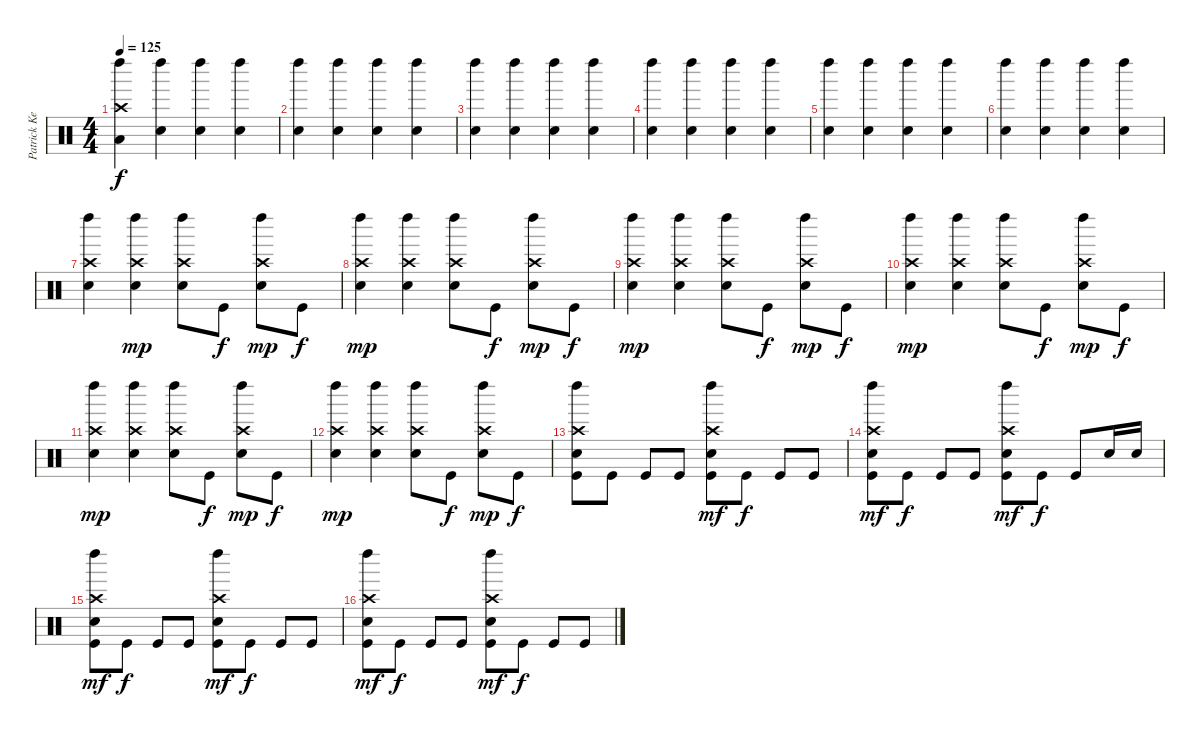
\track ("Patrick Keeler" "Patrick Ke") {instrument percussion}
\staff {score}
\articulation defaults
\ts (4 4)
\tempo 125
\clef neutral
\ks c
("Crash high (hit)" "Left Maraca (hit)" "Low Floor Tom (hit)").4{dy f} ("Left Maraca (hit)" "Electric Snare (hit)").4 ("Left Maraca (hit)" "Electric Snare (hit)").4 ("Left Maraca (hit)" "Electric Snare (hit)").4 |
("Left Maraca (hit)" "Electric Snare (hit)").4 ("Left Maraca (hit)" "Electric Snare (hit)").4 ("Left Maraca (hit)" "Electric Snare (hit)").4 ("Left Maraca (hit)" "Electric Snare (hit)").4 |
("Left Maraca (hit)" "Electric Snare (hit)").4 ("Left Maraca (hit)" "Electric Snare (hit)").4 ("Left Maraca (hit)" "Electric Snare (hit)").4 ("Left Maraca (hit)" "Electric Snare (hit)").4 |
("Left Maraca (hit)" "Electric Snare (hit)").4 ("Left Maraca (hit)" "Electric Snare (hit)").4 ("Left Maraca (hit)" "Electric Snare (hit)").4 ("Left Maraca (hit)" "Electric Snare (hit)").4 |
("Left Maraca (hit)" "Electric Snare (hit)").4 ("Left Maraca (hit)" "Electric Snare (hit)").4 ("Left Maraca (hit)" "Electric Snare (hit)").4 ("Left Maraca (hit)" "Electric Snare (hit)").4 |
("Left Maraca (hit)" "Electric Snare (hit)").4 ("Left Maraca (hit)" "Electric Snare (hit)").4 ("Left Maraca (hit)" "Electric Snare (hit)").4 ("Left Maraca (hit)" "Electric Snare (hit)").4 |
("Crash high (hit)" "Left Maraca (hit)" "Electric Snare (hit)").4 ("Crash high (hit)" "Left Maraca (hit)" "Electric Snare (hit)").4{dy mp} ("Crash high (hit)" "Left Maraca (hit)" "Electric Snare (hit)").8 "Kick (hit)".8{dy f} ("Crash high (hit)" "Left Maraca (hit)" "Electric Snare (hit)").8{dy mp} "Kick (hit)".8{dy f} |
("Crash high (hit)" "Left Maraca (hit)" "Electric Snare (hit)").4{dy mp} ("Crash high (hit)" "Left Maraca (hit)" "Electric Snare (hit)").4 ("Crash high (hit)" "Left Maraca (hit)" "Electric Snare (hit)").8 "Kick (hit)".8{dy f} ("Crash high (hit)" "Left Maraca (hit)" "Electric Snare (hit)").8{dy mp} "Kick (hit)".8{dy f} |
("Crash high (hit)" "Left Maraca (hit)" "Electric Snare (hit)").4{dy mp} ("Crash high (hit)" "Left Maraca (hit)" "Electric Snare (hit)").4 ("Crash high (hit)" "Left Maraca (hit)" "Electric Snare (hit)").8 "Kick (hit)".8{dy f} ("Crash high (hit)" "Left Maraca (hit)" "Electric Snare (hit)").8{dy mp} "Kick (hit)".8{dy f} |
("Crash high (hit)" "Left Maraca (hit)" "Electric Snare (hit)").4{dy mp} ("Crash high (hit)" "Left Maraca (hit)" "Electric Snare (hit)").4 ("Crash high (hit)" "Left Maraca (hit)" "Electric Snare (hit)").8 "Kick (hit)".8{dy f} ("Crash high (hit)" "Left Maraca (hit)" "Electric Snare (hit)").8{dy mp} "Kick (hit)".8{dy f} |
("Crash high (hit)" "Left Maraca (hit)" "Electric Snare (hit)").4{dy mp} ("Crash high (hit)" "Left Maraca (hit)" "Electric Snare (hit)").4 ("Crash high (hit)" "Left Maraca (hit)" "Electric Snare (hit)").8 "Kick (hit)".8{dy f} ("Crash high (hit)" "Left Maraca (hit)" "Electric Snare (hit)").8{dy mp} "Kick (hit)".8{dy f} |
("Crash high (hit)" "Left Maraca (hit)" "Electric Snare (hit)").4{dy mp} ("Crash high (hit)" "Left Maraca (hit)" "Electric Snare (hit)").4 ("Crash high (hit)" "Left Maraca (hit)" "Electric Snare (hit)").8 "Kick (hit)".8{dy f} ("Crash high (hit)" "Left Maraca (hit)" "Electric Snare (hit)").8{dy mp} "Kick (hit)".8{dy f} |
("Crash high (hit)" "Left Maraca (hit)" "Electric Snare (hit)" "Kick (hit)").8 "Kick (hit)".8 "Kick (hit)".8 "Kick (hit)".8 ("Crash high (hit)" "Left Maraca (hit)" "Electric Snare (hit)" "Kick (hit)").8{dy mf} "Kick (hit)".8{dy f} "Kick (hit)".8 "Kick (hit)".8 |
("Crash high (hit)" "Left Maraca (hit)" "Electric Snare (hit)" "Kick (hit)").8{dy mf} "Kick (hit)".8{dy f} "Kick (hit)".8 "Kick (hit)".8 ("Crash high (hit)" "Left Maraca (hit)" "Electric Snare (hit)" "Kick (hit)").8{dy mf} "Kick (hit)".8{dy f} "Kick (hit)".8 "Electric Snare (hit)".16 "Electric Snare (hit)".16 |
("Crash high (hit)" "Left Maraca (hit)" "Electric Snare (hit)" "Kick (hit)").8{dy mf} "Kick (hit)".8{dy f} "Kick (hit)".8 "Kick (hit)".8 ("Crash high (hit)" "Left Maraca (hit)" "Electric Snare (hit)" "Kick (hit)").8{dy mf} "Kick (hit)".8{dy f} "Kick (hit)".8 "Kick (hit)".8 |
("Crash high (hit)" "Left Maraca (hit)" "Electric Snare (hit)" "Kick (hit)").8{dy mf} "Kick (hit)".8{dy f} "Kick (hit)".8 "Kick (hit)".8 ("Crash high (hit)" "Left Maraca (hit)" "Electric Snare (hit)" "Kick (hit)").8{dy mf} "Kick (hit)".8{dy f} "Kick (hit)".8 "Kick (hit)".8
